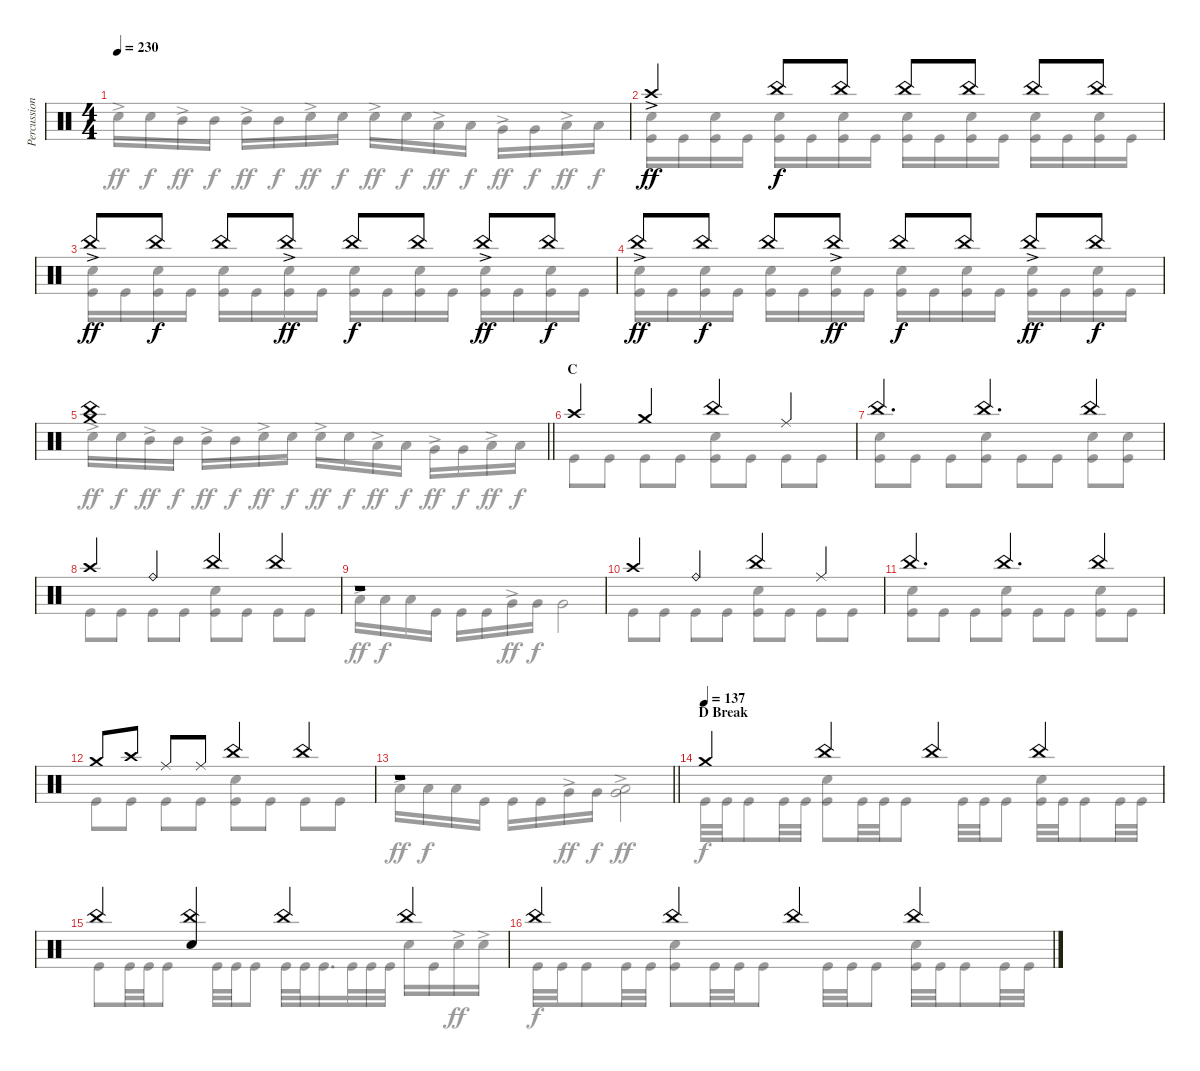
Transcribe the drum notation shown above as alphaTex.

\track ("Percussions" "Percussion") {instrument percussion}
\staff {score}
\articulation defaults
\voice
\ts (4 4)
\tempo 230
\clef neutral
\ks c
|
"Crash high (hit)"{ac}.4{dy ff} "China (hit)".8{dy f} "China (hit)".8 "China (hit)".8 "China (hit)".8 "China (hit)".8 "China (hit)".8 |
"China (hit)"{ac}.8{dy ff} "China (hit)".8{dy f} "China (hit)".8 "China (hit)"{ac}.8{dy ff} "China (hit)".8{dy f} "China (hit)".8 "China (hit)"{ac}.8{dy ff} "China (hit)".8{dy f} |
"China (hit)"{ac}.8{dy ff} "China (hit)".8{dy f} "China (hit)".8 "China (hit)"{ac}.8{dy ff} "China (hit)".8{dy f} "China (hit)".8 "China (hit)"{ac}.8{dy ff} "China (hit)".8{dy f} |
\barLineRight lightlight
("China (hit)" "Crash medium (hit)").1 |
\section ("" "C")
"Crash high (hit)".4 "Crash medium (hit)".4 "China (hit)".4 "Ride (middle)".4 |
"China (hit)".4{d} "China (hit)".4{d} "China (hit)".4 |
"Crash high (hit)".4 "Ride (bell)".4 "China (hit)".4 "China (hit)".4 |
r.1 |
"Crash high (hit)".4 "Ride (bell)".4 "China (hit)".4 "Ride (middle)".4 |
"China (hit)".4{d} "China (hit)".4{d} "China (hit)".4 |
"Crash medium (hit)".8 "Crash high (hit)".8 "Ride (middle)".8 "Ride (middle)".8 "China (hit)".4 "China (hit)".4 |
\barLineRight lightlight
r.1 |
\section ("" "D Break")
\tempo (137)
"Crash medium (hit)".4 "China (hit)".4 "China (hit)".4 "China (hit)".4 |
"China (hit)".4 ("China (hit)" "Snare (hit) 2").4 "China (hit)".4 "China (hit)".4 |
"China (hit)".4 "China (hit)".4 "China (hit)".4 "China (hit)".4
\voice
\clef neutral
\ottava regular
\simile none
\ks c "Snare (hit) 2"{ac}.16{dy ff} "Snare (hit) 2".16{dy f} "Mid Tom (hit)"{ac}.16{dy ff} "Mid Tom (hit)".16{dy f} "Mid Tom (hit)"{ac}.16{dy ff} "Mid Tom (hit)".16{dy f} "Snare (hit) 2"{ac}.16{dy ff} "Snare (hit) 2".16{dy f} "Snare (hit) 2"{ac}.16{dy ff} "Snare (hit) 2".16{dy f} "Low Tom (hit)"{ac}.16{dy ff} "Low Tom (hit)".16{dy f} "Very Low Tom (hit)"{ac}.16{dy ff} "Very Low Tom (hit)".16{dy f} "Low Floor Tom (hit)"{ac}.16{dy ff} "Low Floor Tom (hit)".16{dy f}
|
("Snare (hit) 2" "Kick (hit)").16 "Kick (hit)".16 ("Snare (hit) 2" "Kick (hit)").16 "Kick (hit)".16 ("Snare (hit) 2" "Kick (hit)").16 "Kick (hit)".16 ("Snare (hit) 2" "Kick (hit)").16 "Kick (hit)".16 ("Snare (hit) 2" "Kick (hit)").16 "Kick (hit)".16 ("Snare (hit) 2" "Kick (hit)").16 "Kick (hit)".16 ("Snare (hit) 2" "Kick (hit)").16 "Kick (hit)".16 ("Snare (hit) 2" "Kick (hit)").16 "Kick (hit)".16 |
("Snare (hit) 2" "Kick (hit)").16 "Kick (hit)".16 ("Snare (hit) 2" "Kick (hit)").16 "Kick (hit)".16 ("Snare (hit) 2" "Kick (hit)").16 "Kick (hit)".16 ("Snare (hit) 2" "Kick (hit)").16 "Kick (hit)".16 ("Snare (hit) 2" "Kick (hit)").16 "Kick (hit)".16 ("Snare (hit) 2" "Kick (hit)").16 "Kick (hit)".16 ("Snare (hit) 2" "Kick (hit)").16 "Kick (hit)".16 ("Snare (hit) 2" "Kick (hit)").16 "Kick (hit)".16 |
("Snare (hit) 2" "Kick (hit)").16 "Kick (hit)".16 ("Snare (hit) 2" "Kick (hit)").16 "Kick (hit)".16 ("Snare (hit) 2" "Kick (hit)").16 "Kick (hit)".16 ("Snare (hit) 2" "Kick (hit)").16 "Kick (hit)".16 ("Snare (hit) 2" "Kick (hit)").16 "Kick (hit)".16 ("Snare (hit) 2" "Kick (hit)").16 "Kick (hit)".16 ("Snare (hit) 2" "Kick (hit)").16 "Kick (hit)".16 ("Snare (hit) 2" "Kick (hit)").16 "Kick (hit)".16 |
\barLineRight lightlight "Snare (hit) 2"{ac}.16{dy ff} "Snare (hit) 2".16{dy f} "Mid Tom (hit)"{ac}.16{dy ff} "Mid Tom (hit)".16{dy f} "Mid Tom (hit)"{ac}.16{dy ff} "Mid Tom (hit)".16{dy f} "Snare (hit) 2"{ac}.16{dy ff} "Snare (hit) 2".16{dy f} "Snare (hit) 2"{ac}.16{dy ff} "Snare (hit) 2".16{dy f} "Low Tom (hit)"{ac}.16{dy ff} "Low Tom (hit)".16{dy f} "Very Low Tom (hit)"{ac}.16{dy ff} "Very Low Tom (hit)".16{dy f} "Low Floor Tom (hit)"{ac}.16{dy ff} "Low Floor Tom (hit)".16{dy f}
|
"Kick (hit)".8 "Kick (hit)".8 "Kick (hit)".8 "Kick (hit)".8 ("Snare (hit) 2" "Kick (hit)").8 "Kick (hit)".8 "Kick (hit)".8 "Kick (hit)".8 |
("Snare (hit) 2" "Kick (hit)").8 "Kick (hit)".8 "Kick (hit)".8 ("Snare (hit) 2" "Kick (hit)").8 "Kick (hit)".8 "Kick (hit)".8 ("Snare (hit) 2" "Kick (hit)").8 ("Snare (hit) 2" "Kick (hit)").8 |
"Kick (hit)".8 "Kick (hit)".8 "Kick (hit)".8 "Kick (hit)".8 ("Snare (hit) 2" "Kick (hit)").8 "Kick (hit)".8 "Kick (hit)".8 "Kick (hit)".8 |
"Low Tom (hit)"{ac}.16{dy ff} "Low Tom (hit)".16{dy f} "Low Tom (hit)".16 "Kick (hit)".16 "Kick (hit)".16 "Kick (hit)".16 "Very Low Tom (hit)"{ac}.16{dy ff} "Very Low Tom (hit)".16{dy f} "Very Low Tom (hit)".2 |
"Kick (hit)".8 "Kick (hit)".8 "Kick (hit)".8 "Kick (hit)".8 ("Snare (hit) 2" "Kick (hit)").8 "Kick (hit)".8 "Kick (hit)".8 "Kick (hit)".8 |
("Snare (hit) 2" "Kick (hit)").8 "Kick (hit)".8 "Kick (hit)".8 ("Snare (hit) 2" "Kick (hit)").8 "Kick (hit)".8 "Kick (hit)".8 ("Snare (hit) 2" "Kick (hit)").8 "Kick (hit)".8 |
"Kick (hit)".8 "Kick (hit)".8 "Kick (hit)".8 "Kick (hit)".8 ("Snare (hit) 2" "Kick (hit)").8 "Kick (hit)".8 "Kick (hit)".8 "Kick (hit)".8 |
\barLineRight lightlight "Low Tom (hit)"{ac}.16{dy ff} "Low Tom (hit)".16{dy f} "Low Tom (hit)".16 "Kick (hit)".16 "Kick (hit)".16 "Kick (hit)".16 "Very Low Tom (hit)"{ac}.16{dy ff} "Very Low Tom (hit)".16{dy f}
("Very Low Tom (hit)"{ac} "Low Floor Tom (hit)"{ac}).2{dy ff} |
"Kick (hit)".32{dy f} "Kick (hit)".32 "Kick (hit)".8 "Kick (hit)".32 "Kick (hit)".32 ("Snare (hit) 2" "Kick (hit)").8 "Kick (hit)".32 "Kick (hit)".32 "Kick (hit)".8 "Kick (hit)".32 "Kick (hit)".32 "Kick (hit)".8 ("Snare (hit) 2" "Kick (hit)").32 "Kick (hit)".32 "Kick (hit)".8 "Kick (hit)".32 "Kick (hit)".32 |
"Kick (hit)".8 "Kick (hit)".32 "Kick (hit)".32 "Kick (hit)".8 "Kick (hit)".32 "Kick (hit)".32 "Kick (hit)".8 "Kick (hit)".32 "Kick (hit)".32 "Kick (hit)".16{d} "Kick (hit)".32 "Kick (hit)".32 "Kick (hit)".32 "Snare (hit) 2".16 "Kick (hit)".16 "Snare (hit) 2"{ac}.16{dy ff} "Snare (hit) 2"{ac}.16 |
"Kick (hit)".32{dy f} "Kick (hit)".32 "Kick (hit)".8 "Kick (hit)".32 "Kick (hit)".32 ("Snare (hit) 2" "Kick (hit)").8 "Kick (hit)".32 "Kick (hit)".32 "Kick (hit)".8 "Kick (hit)".32 "Kick (hit)".32 "Kick (hit)".8 ("Snare (hit) 2" "Kick (hit)").32 "Kick (hit)".32 "Kick (hit)".8 "Kick (hit)".32 "Kick (hit)".32
